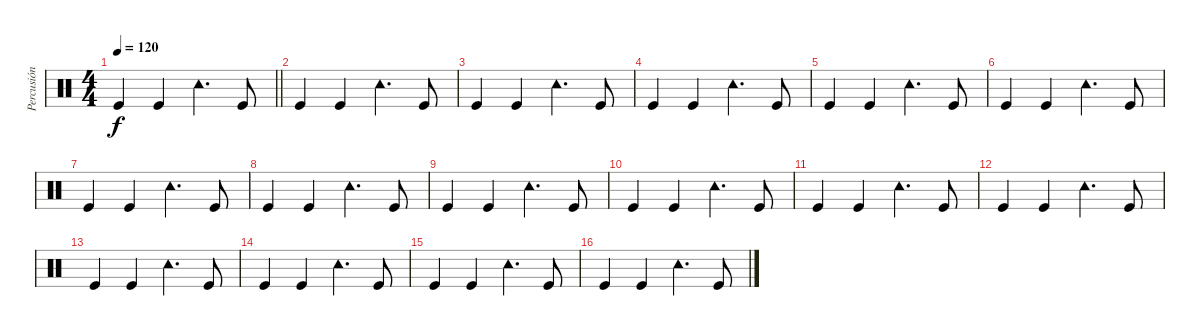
\track ("Percusión" "Percusión") {instrument percussion}
\staff {score}
\articulation defaults
\ts (4 4)
\tempo 120
\clef neutral
\barLineRight lightlight
\ks c "Kick (hit)".4{dy f} "Kick (hit)".4 "Tambourine (hit)".4{d} "Kick (hit)".8
|
"Kick (hit)".4 "Kick (hit)".4 "Tambourine (hit)".4{d} "Kick (hit)".8 |
"Kick (hit)".4 "Kick (hit)".4 "Tambourine (hit)".4{d} "Kick (hit)".8 |
"Kick (hit)".4 "Kick (hit)".4 "Tambourine (hit)".4{d} "Kick (hit)".8 |
"Kick (hit)".4 "Kick (hit)".4 "Tambourine (hit)".4{d} "Kick (hit)".8 |
"Kick (hit)".4 "Kick (hit)".4 "Tambourine (hit)".4{d} "Kick (hit)".8 |
"Kick (hit)".4 "Kick (hit)".4 "Tambourine (hit)".4{d} "Kick (hit)".8 |
"Kick (hit)".4 "Kick (hit)".4 "Tambourine (hit)".4{d} "Kick (hit)".8 |
"Kick (hit)".4 "Kick (hit)".4 "Tambourine (hit)".4{d} "Kick (hit)".8 |
"Kick (hit)".4 "Kick (hit)".4 "Tambourine (hit)".4{d} "Kick (hit)".8 |
"Kick (hit)".4 "Kick (hit)".4 "Tambourine (hit)".4{d} "Kick (hit)".8 |
"Kick (hit)".4 "Kick (hit)".4 "Tambourine (hit)".4{d} "Kick (hit)".8 |
"Kick (hit)".4 "Kick (hit)".4 "Tambourine (hit)".4{d} "Kick (hit)".8 |
"Kick (hit)".4 "Kick (hit)".4 "Tambourine (hit)".4{d} "Kick (hit)".8 |
"Kick (hit)".4 "Kick (hit)".4 "Tambourine (hit)".4{d} "Kick (hit)".8 |
"Kick (hit)".4 "Kick (hit)".4 "Tambourine (hit)".4{d} "Kick (hit)".8
